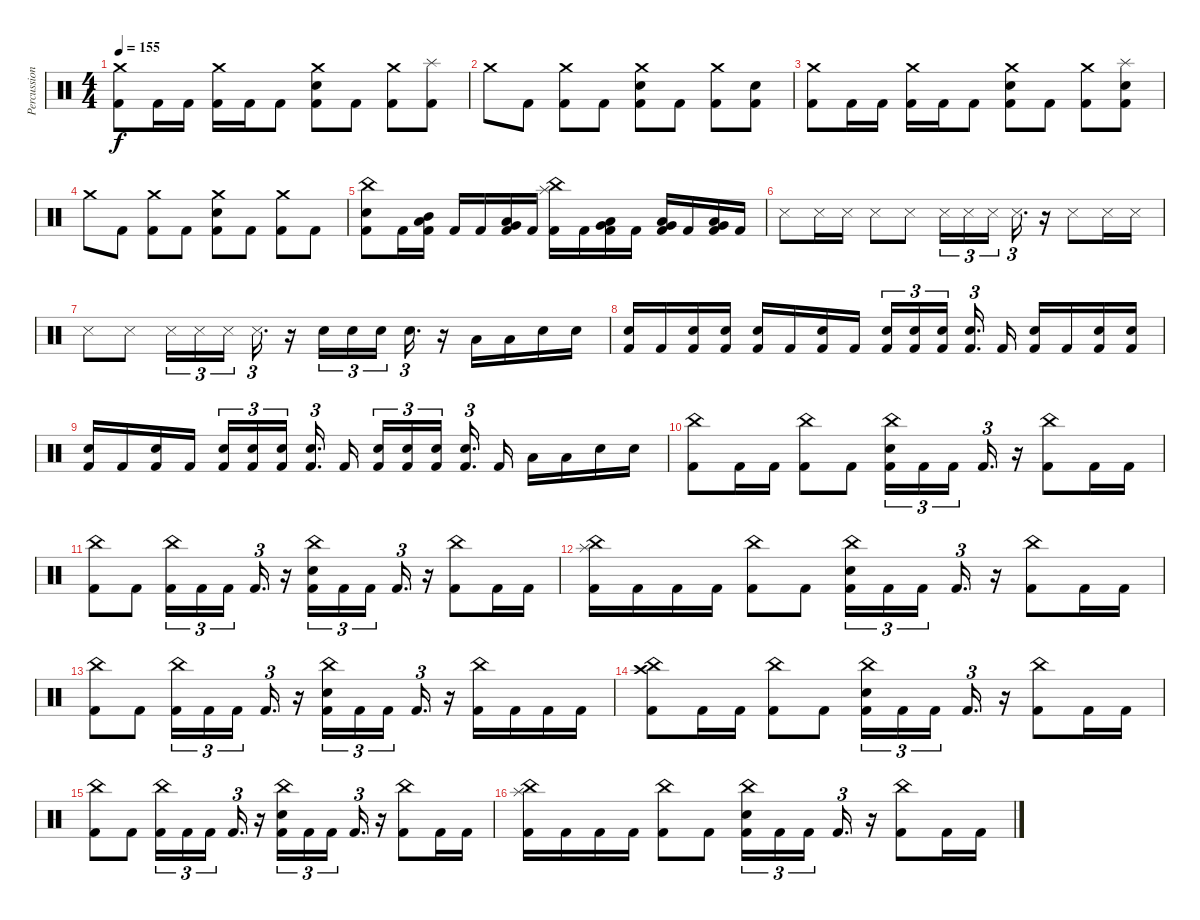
\track ("Percussion" "Percussion") {instrument percussion}
\staff {score}
\articulation defaults
\ts (4 4)
\tempo 155
\clef neutral
\ks c
("Crash medium (hit)" "Kick (hit) 2").8{dy f} "Kick (hit) 2".16 "Kick (hit) 2".16 ("Crash medium (hit)" "Kick (hit) 2").16 "Kick (hit) 2".16 "Kick (hit) 2".8 ("Electric Snare (hit)" "Crash medium (hit)" "Kick (hit) 2").8 "Kick (hit) 2".8 ("Crash medium (hit)" "Kick (hit) 2").8 ("Splash (hit)" "Kick (hit) 2").8 |
"Crash medium (hit)".8 "Kick (hit) 2".8 ("Crash medium (hit)" "Kick (hit) 2").8 "Kick (hit) 2".8 ("Electric Snare (hit)" "Crash medium (hit)" "Kick (hit) 2").8 "Kick (hit) 2".8 ("Crash medium (hit)" "Kick (hit) 2").8 ("Electric Snare (hit)" "Kick (hit) 2").8 |
("Crash medium (hit)" "Kick (hit) 2").8 "Kick (hit) 2".16 "Kick (hit) 2".16 ("Crash medium (hit)" "Kick (hit) 2").16 "Kick (hit) 2".16 "Kick (hit) 2".8 ("Electric Snare (hit)" "Crash medium (hit)" "Kick (hit) 2").8 "Kick (hit) 2".8 ("Crash medium (hit)" "Kick (hit) 2").8 ("Electric Snare (hit)" "Splash (hit)" "Kick (hit) 2").8 |
"Crash medium (hit)".8 "Kick (hit) 2".8 ("Crash medium (hit)" "Kick (hit) 2").8 "Kick (hit) 2".8 ("Electric Snare (hit)" "Crash medium (hit)" "Kick (hit) 2").8 "Kick (hit) 2".8 ("Crash medium (hit)" "Kick (hit) 2").8 "Kick (hit) 2".8 |
("Electric Snare (hit)" "China (hit)" "Kick (hit) 2").8 "Kick (hit) 2".16 ("Mid Tom (hit)" "Low Tom (hit)" "Kick (hit) 2").16 "Kick (hit) 2".16 "Kick (hit) 2".16 ("Low Tom (hit)" "Very Low Tom (hit)" "Kick (hit) 2").16 "Kick (hit) 2".16 ("Splash (hit)" "China (hit)" "Kick (hit) 2").16 "Kick (hit) 2".16 ("Low Tom (hit)" "Very Low Tom (hit)" "Kick (hit) 2").16 "Kick (hit) 2".16 ("Very Low Tom (hit)" "Low Floor Tom (hit)" "Kick (hit) 2").16 "Kick (hit) 2".16 ("Very Low Tom (hit)" "Low Floor Tom (hit)" "Kick (hit) 2").16 "Kick (hit) 2".16 |
"Snare (side stick) 3".8 "Snare (side stick) 3".16 "Snare (side stick) 3".16 "Snare (side stick) 3".8 "Snare (side stick) 3".8 "Snare (side stick) 3".16{tu (3 2)} "Snare (side stick) 3".16{tu (3 2)} "Snare (side stick) 3".16{tu (3 2) beam splitsecondary} "Snare (side stick) 3".16{d tu (3 2)} r.16 "Snare (side stick) 3".8 "Snare (side stick) 3".16 "Snare (side stick) 3".16 |
"Snare (side stick) 3".8 "Snare (side stick) 3".8 "Snare (side stick) 3".16{tu (3 2)} "Snare (side stick) 3".16{tu (3 2)} "Snare (side stick) 3".16{tu (3 2) beam splitsecondary} "Snare (side stick) 3".16{d tu (3 2)} r.16 "Electric Snare (hit)".16{tu (3 2)} "Electric Snare (hit)".16{tu (3 2)} "Electric Snare (hit)".16{tu (3 2) beam splitsecondary} "Electric Snare (hit)".16{d tu (3 2)} r.16 "Low Tom (hit)".16 "Low Tom (hit)".16 "Electric Snare (hit)".16 "Electric Snare (hit)".16 |
("Electric Snare (hit)" "Kick (hit) 2").16 "Kick (hit) 2".16 ("Electric Snare (hit)" "Kick (hit) 2").16 ("Electric Snare (hit)" "Kick (hit) 2").16 ("Electric Snare (hit)" "Kick (hit) 2").16 "Kick (hit) 2".16 ("Electric Snare (hit)" "Kick (hit) 2").16 "Kick (hit) 2".16 ("Electric Snare (hit)" "Kick (hit) 2").16{tu (3 2)} ("Electric Snare (hit)" "Kick (hit) 2").16{tu (3 2)} ("Electric Snare (hit)" "Kick (hit) 2").16{tu (3 2) beam splitsecondary} ("Electric Snare (hit)" "Kick (hit) 2").16{d tu (3 2)} "Kick (hit) 2".16 ("Electric Snare (hit)" "Kick (hit) 2").16 "Kick (hit) 2".16 ("Electric Snare (hit)" "Kick (hit) 2").16 ("Electric Snare (hit)" "Kick (hit) 2").16 |
("Electric Snare (hit)" "Kick (hit) 2").16 "Kick (hit) 2".16 ("Electric Snare (hit)" "Kick (hit) 2").16 "Kick (hit) 2".16 ("Electric Snare (hit)" "Kick (hit) 2").16{tu (3 2)} ("Electric Snare (hit)" "Kick (hit) 2").16{tu (3 2)} ("Electric Snare (hit)" "Kick (hit) 2").16{tu (3 2) beam splitsecondary} ("Electric Snare (hit)" "Kick (hit) 2").16{d tu (3 2)} "Kick (hit) 2".16 ("Electric Snare (hit)" "Kick (hit) 2").16{tu (3 2)} ("Electric Snare (hit)" "Kick (hit) 2").16{tu (3 2)} ("Electric Snare (hit)" "Kick (hit) 2").16{tu (3 2) beam splitsecondary} ("Electric Snare (hit)" "Kick (hit) 2").16{d tu (3 2)} "Kick (hit) 2".16 "Low Tom (hit)".16 "Low Tom (hit)".16 "Electric Snare (hit)".16 "Electric Snare (hit)".16 |
("China (hit)" "Kick (hit) 2").8 "Kick (hit) 2".16 "Kick (hit) 2".16 ("China (hit)" "Kick (hit) 2").8 "Kick (hit) 2".8 ("Electric Snare (hit)" "China (hit)" "Kick (hit) 2").16{tu (3 2)} "Kick (hit) 2".16{tu (3 2)} "Kick (hit) 2".16{tu (3 2) beam splitsecondary} "Kick (hit) 2".16{d tu (3 2)} r.16 ("China (hit)" "Kick (hit) 2").8 "Kick (hit) 2".16 "Kick (hit) 2".16 |
("China (hit)" "Kick (hit) 2").8 "Kick (hit) 2".8 ("China (hit)" "Kick (hit) 2").16{tu (3 2)} "Kick (hit) 2".16{tu (3 2)} "Kick (hit) 2".16{tu (3 2) beam splitsecondary} "Kick (hit) 2".16{d tu (3 2)} r.16 ("Electric Snare (hit)" "China (hit)" "Kick (hit) 2").16{tu (3 2)} "Kick (hit) 2".16{tu (3 2)} "Kick (hit) 2".16{tu (3 2) beam splitsecondary} "Kick (hit) 2".16{d tu (3 2)} r.16 ("China (hit)" "Kick (hit) 2").8 "Kick (hit) 2".16 "Kick (hit) 2".16 |
("Splash (hit)" "China (hit)" "Kick (hit) 2").16 "Kick (hit) 2".16 "Kick (hit) 2".16 "Kick (hit) 2".16 ("China (hit)" "Kick (hit) 2").8 "Kick (hit) 2".8 ("Electric Snare (hit)" "China (hit)" "Kick (hit) 2").16{tu (3 2)} "Kick (hit) 2".16{tu (3 2)} "Kick (hit) 2".16{tu (3 2) beam splitsecondary} "Kick (hit) 2".16{d tu (3 2)} r.16 ("China (hit)" "Kick (hit) 2").8 "Kick (hit) 2".16 "Kick (hit) 2".16 |
("China (hit)" "Kick (hit) 2").8 "Kick (hit) 2".8 ("China (hit)" "Kick (hit) 2").16{tu (3 2)} "Kick (hit) 2".16{tu (3 2)} "Kick (hit) 2".16{tu (3 2) beam splitsecondary} "Kick (hit) 2".16{d tu (3 2)} r.16 ("Electric Snare (hit)" "China (hit)" "Kick (hit) 2").16{tu (3 2)} "Kick (hit) 2".16{tu (3 2)} "Kick (hit) 2".16{tu (3 2) beam splitsecondary} "Kick (hit) 2".16{d tu (3 2)} r.16 ("China (hit)" "Kick (hit) 2").16 "Kick (hit) 2".16 "Kick (hit) 2".16 "Kick (hit) 2".16 |
("Crash high (hit)" "China (hit)" "Kick (hit) 2").8 "Kick (hit) 2".16 "Kick (hit) 2".16 ("China (hit)" "Kick (hit) 2").8 "Kick (hit) 2".8 ("Electric Snare (hit)" "China (hit)" "Kick (hit) 2").16{tu (3 2)} "Kick (hit) 2".16{tu (3 2)} "Kick (hit) 2".16{tu (3 2) beam splitsecondary} "Kick (hit) 2".16{d tu (3 2)} r.16 ("China (hit)" "Kick (hit) 2").8 "Kick (hit) 2".16 "Kick (hit) 2".16 |
("China (hit)" "Kick (hit) 2").8 "Kick (hit) 2".8 ("China (hit)" "Kick (hit) 2").16{tu (3 2)} "Kick (hit) 2".16{tu (3 2)} "Kick (hit) 2".16{tu (3 2) beam splitsecondary} "Kick (hit) 2".16{d tu (3 2)} r.16 ("Electric Snare (hit)" "China (hit)" "Kick (hit) 2").16{tu (3 2)} "Kick (hit) 2".16{tu (3 2)} "Kick (hit) 2".16{tu (3 2) beam splitsecondary} "Kick (hit) 2".16{d tu (3 2)} r.16 ("China (hit)" "Kick (hit) 2").8 "Kick (hit) 2".16 "Kick (hit) 2".16 |
("Splash (hit)" "China (hit)" "Kick (hit) 2").16 "Kick (hit) 2".16 "Kick (hit) 2".16 "Kick (hit) 2".16 ("China (hit)" "Kick (hit) 2").8 "Kick (hit) 2".8 ("Electric Snare (hit)" "China (hit)" "Kick (hit) 2").16{tu (3 2)} "Kick (hit) 2".16{tu (3 2)} "Kick (hit) 2".16{tu (3 2) beam splitsecondary} "Kick (hit) 2".16{d tu (3 2)} r.16 ("China (hit)" "Kick (hit) 2").8 "Kick (hit) 2".16 "Kick (hit) 2".16
